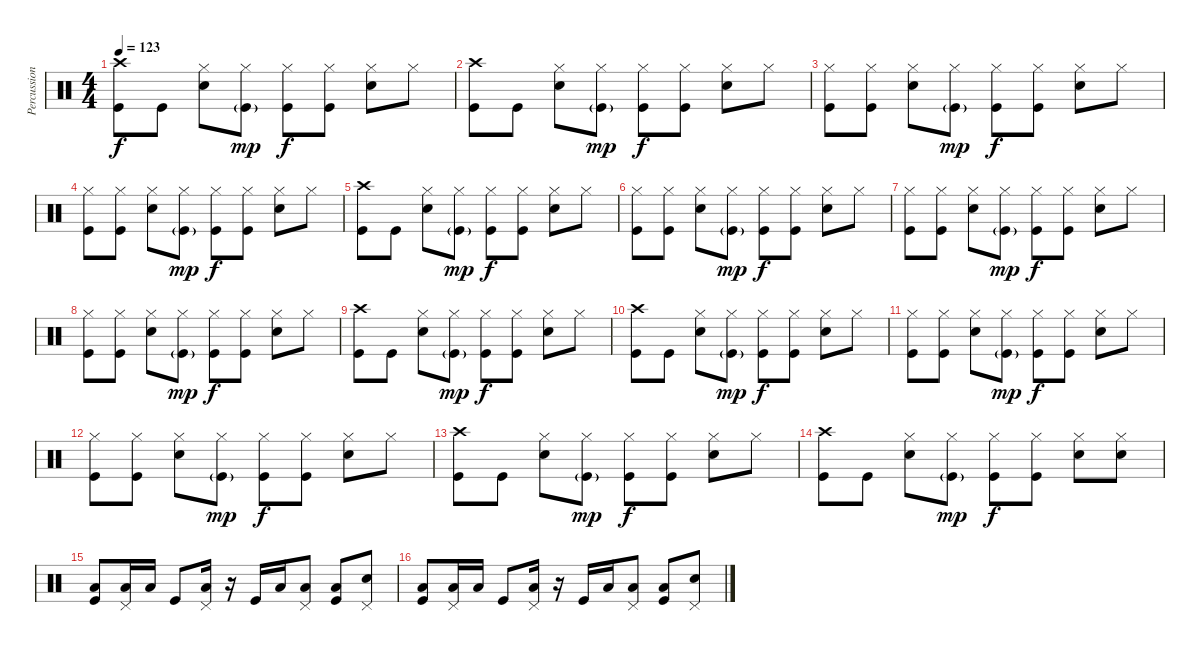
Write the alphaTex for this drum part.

\track ("Percussion" "Percussion") {instrument percussion}
\staff {score}
\articulation defaults
\ts (4 4)
\tempo 123
\clef neutral
\ks c
("Crash high (hit)" "Kick (hit)").8{dy f} "Kick (hit)".8 ("Hi-Hat (closed)" "Snare (hit) 2").8 ("Hi-Hat (closed)" "Kick (hit)"{g}).8{dy mp} ("Hi-Hat (closed)" "Kick (hit)").8{dy f} ("Hi-Hat (closed)" "Kick (hit)").8 ("Hi-Hat (closed)" "Snare (hit) 2").8 "Hi-Hat (closed)".8 |
("Crash high (hit)" "Kick (hit)").8 "Kick (hit)".8 ("Hi-Hat (closed)" "Snare (hit) 2").8 ("Hi-Hat (closed)" "Kick (hit)"{g}).8{dy mp} ("Hi-Hat (closed)" "Kick (hit)").8{dy f} ("Hi-Hat (closed)" "Kick (hit)").8 ("Hi-Hat (closed)" "Snare (hit) 2").8 "Hi-Hat (closed)".8 |
("Hi-Hat (closed)" "Kick (hit)").8 ("Hi-Hat (closed)" "Kick (hit)").8 ("Hi-Hat (closed)" "Snare (hit) 2").8 ("Hi-Hat (closed)" "Kick (hit)"{g}).8{dy mp} ("Hi-Hat (closed)" "Kick (hit)").8{dy f} ("Hi-Hat (closed)" "Kick (hit)").8 ("Hi-Hat (closed)" "Snare (hit) 2").8 "Hi-Hat (closed)".8 |
("Hi-Hat (closed)" "Kick (hit)").8 ("Hi-Hat (closed)" "Kick (hit)").8 ("Hi-Hat (closed)" "Snare (hit) 2").8 ("Hi-Hat (closed)" "Kick (hit)"{g}).8{dy mp} ("Hi-Hat (closed)" "Kick (hit)").8{dy f} ("Hi-Hat (closed)" "Kick (hit)").8 ("Hi-Hat (closed)" "Snare (hit) 2").8 "Hi-Hat (closed)".8 |
("Crash high (hit)" "Kick (hit)").8 "Kick (hit)".8 ("Hi-Hat (closed)" "Snare (hit) 2").8 ("Hi-Hat (closed)" "Kick (hit)"{g}).8{dy mp} ("Hi-Hat (closed)" "Kick (hit)").8{dy f} ("Hi-Hat (closed)" "Kick (hit)").8 ("Hi-Hat (closed)" "Snare (hit) 2").8 "Hi-Hat (closed)".8 |
("Hi-Hat (closed)" "Kick (hit)").8 ("Hi-Hat (closed)" "Kick (hit)").8 ("Hi-Hat (closed)" "Snare (hit) 2").8 ("Hi-Hat (closed)" "Kick (hit)"{g}).8{dy mp} ("Hi-Hat (closed)" "Kick (hit)").8{dy f} ("Hi-Hat (closed)" "Kick (hit)").8 ("Hi-Hat (closed)" "Snare (hit) 2").8 "Hi-Hat (closed)".8 |
("Hi-Hat (closed)" "Kick (hit)").8 ("Hi-Hat (closed)" "Kick (hit)").8 ("Hi-Hat (closed)" "Snare (hit) 2").8 ("Hi-Hat (closed)" "Kick (hit)"{g}).8{dy mp} ("Hi-Hat (closed)" "Kick (hit)").8{dy f} ("Hi-Hat (closed)" "Kick (hit)").8 ("Hi-Hat (closed)" "Snare (hit) 2").8 "Hi-Hat (closed)".8 |
("Hi-Hat (closed)" "Kick (hit)").8 ("Hi-Hat (closed)" "Kick (hit)").8 ("Hi-Hat (closed)" "Snare (hit) 2").8 ("Hi-Hat (closed)" "Kick (hit)"{g}).8{dy mp} ("Hi-Hat (closed)" "Kick (hit)").8{dy f} ("Hi-Hat (closed)" "Kick (hit)").8 ("Hi-Hat (closed)" "Snare (hit) 2").8 "Hi-Hat (closed)".8 |
("Crash high (hit)" "Kick (hit)").8 "Kick (hit)".8 ("Hi-Hat (closed)" "Snare (hit) 2").8 ("Hi-Hat (closed)" "Kick (hit)"{g}).8{dy mp} ("Hi-Hat (closed)" "Kick (hit)").8{dy f} ("Hi-Hat (closed)" "Kick (hit)").8 ("Hi-Hat (closed)" "Snare (hit) 2").8 "Hi-Hat (closed)".8 |
("Crash high (hit)" "Kick (hit)").8 "Kick (hit)".8 ("Hi-Hat (closed)" "Snare (hit) 2").8 ("Hi-Hat (closed)" "Kick (hit)"{g}).8{dy mp} ("Hi-Hat (closed)" "Kick (hit)").8{dy f} ("Hi-Hat (closed)" "Kick (hit)").8 ("Hi-Hat (closed)" "Snare (hit) 2").8 "Hi-Hat (closed)".8 |
("Hi-Hat (closed)" "Kick (hit)").8 ("Hi-Hat (closed)" "Kick (hit)").8 ("Hi-Hat (closed)" "Snare (hit) 2").8 ("Hi-Hat (closed)" "Kick (hit)"{g}).8{dy mp} ("Hi-Hat (closed)" "Kick (hit)").8{dy f} ("Hi-Hat (closed)" "Kick (hit)").8 ("Hi-Hat (closed)" "Snare (hit) 2").8 "Hi-Hat (closed)".8 |
("Hi-Hat (closed)" "Kick (hit)").8 ("Hi-Hat (closed)" "Kick (hit)").8 ("Hi-Hat (closed)" "Snare (hit) 2").8 ("Hi-Hat (closed)" "Kick (hit)"{g}).8{dy mp} ("Hi-Hat (closed)" "Kick (hit)").8{dy f} ("Hi-Hat (closed)" "Kick (hit)").8 ("Hi-Hat (closed)" "Snare (hit) 2").8 "Hi-Hat (closed)".8 |
("Crash high (hit)" "Kick (hit)").8 "Kick (hit)".8 ("Hi-Hat (closed)" "Snare (hit) 2").8 ("Hi-Hat (closed)" "Kick (hit)"{g}).8{dy mp} ("Hi-Hat (closed)" "Kick (hit)").8{dy f} ("Hi-Hat (closed)" "Kick (hit)").8 ("Hi-Hat (closed)" "Snare (hit) 2").8 "Hi-Hat (closed)".8 |
("Crash high (hit)" "Kick (hit)").8 "Kick (hit)".8 ("Hi-Hat (closed)" "Snare (hit) 2").8 ("Hi-Hat (closed)" "Kick (hit)"{g}).8{dy mp} ("Hi-Hat (closed)" "Kick (hit)").8{dy f} ("Hi-Hat (closed)" "Kick (hit)").8 ("Hi-Hat (closed)" "Snare (hit) 2").8 ("Hi-Hat (closed)" "Snare (hit) 2").8 |
("Low Tom (hit)" "Kick (hit)").8 ("Low Tom (hit)" "Pedal Hi-Hat (hit)").16 "Low Tom (hit)".16 "Kick (hit)".8 ("Low Floor Tom (hit)" "Pedal Hi-Hat (hit)").16 r.16 "Kick (hit)".16 "Low Tom (hit)".16 ("Low Tom (hit)" "Pedal Hi-Hat (hit)").8 ("Low Tom (hit)" "Kick (hit)").8 ("Snare (hit) 2" "Pedal Hi-Hat (hit)").8 |
("Low Tom (hit)" "Kick (hit)").8 ("Low Tom (hit)" "Pedal Hi-Hat (hit)").16 "Low Tom (hit)".16 "Kick (hit)".8 ("Low Floor Tom (hit)" "Pedal Hi-Hat (hit)").16 r.16 "Kick (hit)".16 "Low Tom (hit)".16 ("Low Tom (hit)" "Pedal Hi-Hat (hit)").8 ("Low Tom (hit)" "Kick (hit)").8 ("Snare (hit) 2" "Pedal Hi-Hat (hit)").8
